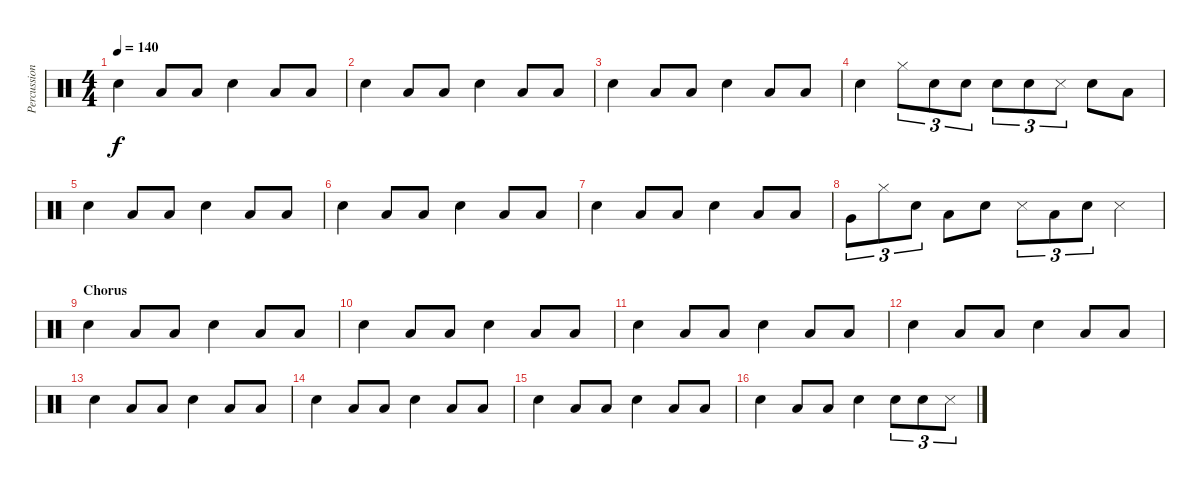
\track ("Percussion" "Percussion") {instrument percussion}
\staff {score}
\articulation defaults
\ts (4 4)
\tempo 140
\clef neutral
\ks c "Electric Snare (hit)".4{dy f} "Low Floor Tom (hit)".8 "Low Floor Tom (hit)".8 "Electric Snare (hit)".4 "Low Floor Tom (hit)".8 "Low Floor Tom (hit)".8
|
"Electric Snare (hit)".4 "Low Floor Tom (hit)".8 "Low Floor Tom (hit)".8 "Electric Snare (hit)".4 "Low Floor Tom (hit)".8 "Low Floor Tom (hit)".8 |
"Electric Snare (hit)".4 "Low Floor Tom (hit)".8 "Low Floor Tom (hit)".8 "Electric Snare (hit)".4 "Low Floor Tom (hit)".8 "Low Floor Tom (hit)".8 |
"Electric Snare (hit)".4 "Hi-Hat (closed)".8{tu (3 2)} "Electric Snare (hit)".8{tu (3 2)} "Snare (hit) 2".8{tu (3 2)} "Electric Snare (hit)".8{tu (3 2)} "Snare (hit) 2".8{tu (3 2)} "Snare (side stick) 3".8{tu (3 2)} "Electric Snare (hit)".8 "Low Floor Tom (hit)".8 |
"Electric Snare (hit)".4 "Low Floor Tom (hit)".8 "Low Floor Tom (hit)".8 "Electric Snare (hit)".4 "Low Floor Tom (hit)".8 "Low Floor Tom (hit)".8 |
"Electric Snare (hit)".4 "Low Floor Tom (hit)".8 "Low Floor Tom (hit)".8 "Electric Snare (hit)".4 "Low Floor Tom (hit)".8 "Low Floor Tom (hit)".8 |
"Electric Snare (hit)".4 "Low Floor Tom (hit)".8 "Low Floor Tom (hit)".8 "Electric Snare (hit)".4 "Low Floor Tom (hit)".8 "Low Floor Tom (hit)".8 |
"Very Low Tom (hit)".8{tu (3 2)} "Hi-Hat (closed)".8{tu (3 2)} "Electric Snare (hit)".8{tu (3 2)} "Low Floor Tom (hit)".8 "Snare (hit) 2".8 "Snare (side stick) 3".8{tu (3 2)} "Low Floor Tom (hit)".8{tu (3 2)} "Electric Snare (hit)".8{tu (3 2)} "Snare (side stick) 3".4 |
\section ("" "Chorus")
"Electric Snare (hit)".4 "Low Floor Tom (hit)".8 "Low Floor Tom (hit)".8 "Electric Snare (hit)".4 "Low Floor Tom (hit)".8 "Low Floor Tom (hit)".8 |
"Electric Snare (hit)".4 "Low Floor Tom (hit)".8 "Low Floor Tom (hit)".8 "Electric Snare (hit)".4 "Low Floor Tom (hit)".8 "Low Floor Tom (hit)".8 |
"Electric Snare (hit)".4 "Low Floor Tom (hit)".8 "Low Floor Tom (hit)".8 "Electric Snare (hit)".4 "Low Floor Tom (hit)".8 "Low Floor Tom (hit)".8 |
"Electric Snare (hit)".4 "Low Floor Tom (hit)".8 "Low Floor Tom (hit)".8 "Electric Snare (hit)".4 "Low Floor Tom (hit)".8 "Low Floor Tom (hit)".8 |
"Electric Snare (hit)".4 "Low Floor Tom (hit)".8 "Low Floor Tom (hit)".8 "Electric Snare (hit)".4 "Low Floor Tom (hit)".8 "Low Floor Tom (hit)".8 |
"Electric Snare (hit)".4 "Low Floor Tom (hit)".8 "Low Floor Tom (hit)".8 "Electric Snare (hit)".4 "Low Floor Tom (hit)".8 "Low Floor Tom (hit)".8 |
"Electric Snare (hit)".4 "Low Floor Tom (hit)".8 "Low Floor Tom (hit)".8 "Electric Snare (hit)".4 "Low Floor Tom (hit)".8 "Low Floor Tom (hit)".8 |
"Electric Snare (hit)".4 "Low Floor Tom (hit)".8 "Low Floor Tom (hit)".8 "Electric Snare (hit)".4 "Electric Snare (hit)".8{tu (3 2)} "Snare (hit) 2".8{tu (3 2)} "Snare (side stick) 3".8{tu (3 2)}
